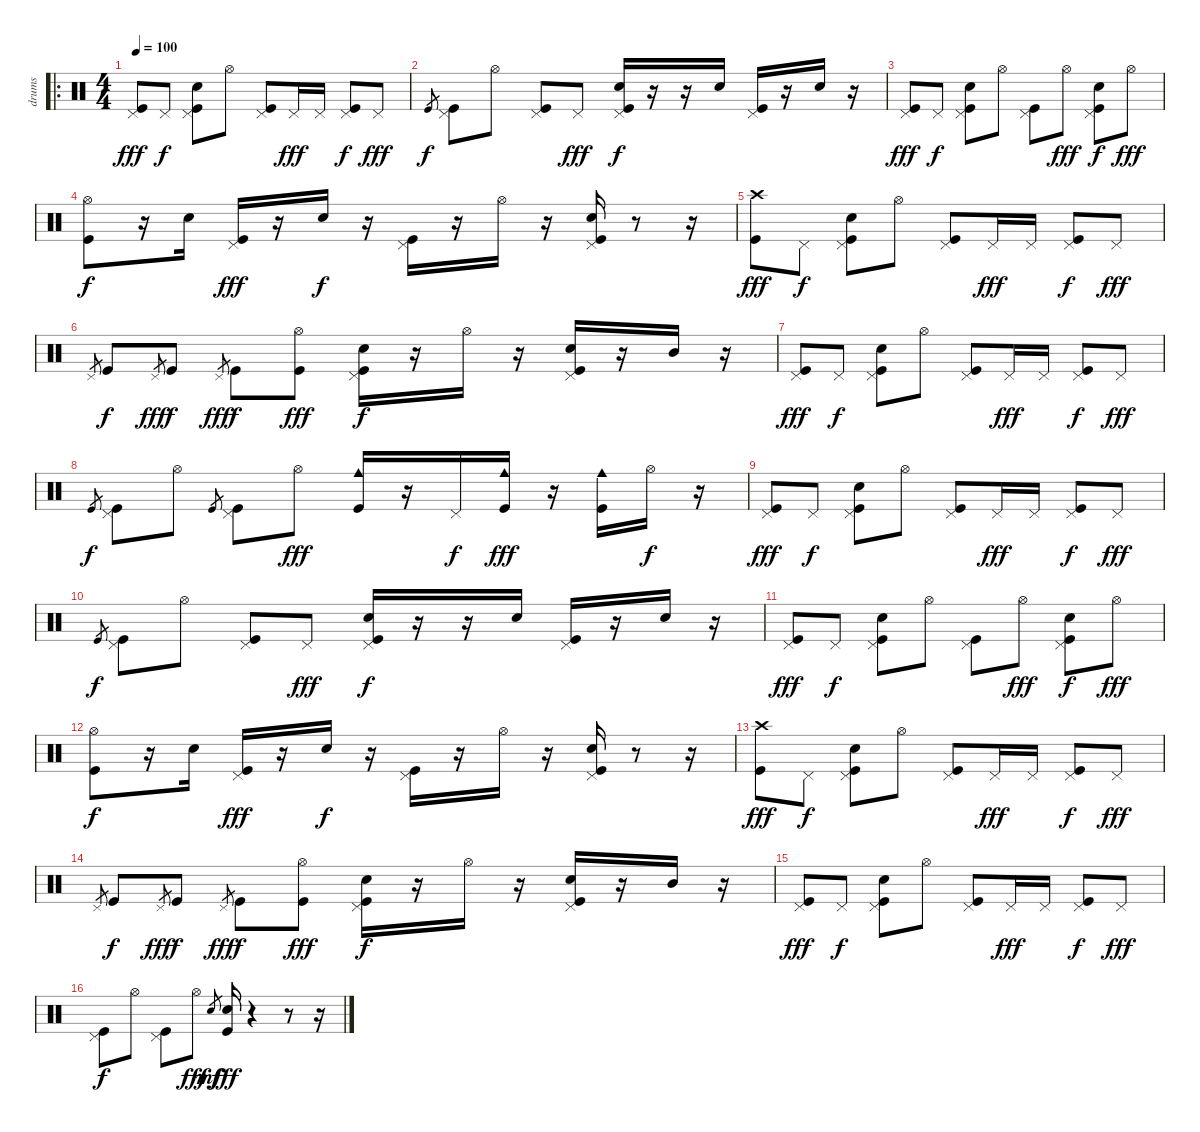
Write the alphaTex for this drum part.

\track ("drums" "drums") {instrument percussion}
\staff {score}
\articulation defaults
\ro
\ts (4 4)
\tempo 100
\clef neutral
\ks c
("Pedal Hi-Hat (hit)" "Kick (hit)").8{dy fff} "Pedal Hi-Hat (hit)".8{dy f} ("Pedal Hi-Hat (hit)" "Electric Snare (hit)" "Kick (hit)").8 "Hi-Hat (open)".8 ("Pedal Hi-Hat (hit)" "Kick (hit)").8 "Pedal Hi-Hat (hit)".16{dy fff} "Pedal Hi-Hat (hit)".16 ("Pedal Hi-Hat (hit)" "Kick (hit)").8{dy f} "Pedal Hi-Hat (hit)".8{dy fff} |
"Kick (hit)".8{gr dy f} ("Pedal Hi-Hat (hit)" "Kick (hit)").8 "Hi-Hat (open)".8 ("Pedal Hi-Hat (hit)" "Kick (hit)").8 "Pedal Hi-Hat (hit)".8{dy fff} ("Pedal Hi-Hat (hit)" "Electric Snare (hit)" "Kick (hit)").16{dy f} r.16 r.16 "Electric Snare (hit)".16 ("Pedal Hi-Hat (hit)" "Kick (hit)").16 r.16 "Electric Snare (hit)".16 r.16 |
("Pedal Hi-Hat (hit)" "Kick (hit)").8{dy fff} "Pedal Hi-Hat (hit)".8{dy f} ("Pedal Hi-Hat (hit)" "Electric Snare (hit)" "Kick (hit)").8 "Hi-Hat (open)".8 ("Pedal Hi-Hat (hit)" "Kick (hit)").8 "Hi-Hat (open)".8{dy fff} ("Pedal Hi-Hat (hit)" "Electric Snare (hit)" "Kick (hit)").8{dy f} "Hi-Hat (open)".8{dy fff} |
("Hi-Hat (open)" "Kick (hit)").8{dy f} r.16 "Electric Snare (hit)".16 ("Pedal Hi-Hat (hit)" "Kick (hit)").16{dy fff} r.16 "Electric Snare (hit)".16{dy f} r.16 ("Pedal Hi-Hat (hit)" "Kick (hit)").16 r.16 "Hi-Hat (open)".16 r.16 ("Pedal Hi-Hat (hit)" "Electric Snare (hit)" "Kick (hit)").16 r.8 r.16 |
("Crash high (hit)" "Kick (hit)").8{dy fff} "Pedal Hi-Hat (hit)".8{dy f} ("Pedal Hi-Hat (hit)" "Electric Snare (hit)" "Kick (hit)").8 "Hi-Hat (open)".8 ("Pedal Hi-Hat (hit)" "Kick (hit)").8 "Pedal Hi-Hat (hit)".16{dy fff} "Pedal Hi-Hat (hit)".16 ("Pedal Hi-Hat (hit)" "Kick (hit)").8{dy f} "Pedal Hi-Hat (hit)".8{dy fff} |
"Pedal Hi-Hat (hit)".8{gr} "Kick (hit)".8{dy f} "Pedal Hi-Hat (hit)".8{gr dy fff} "Kick (hit)".8{dy f} "Pedal Hi-Hat (hit)".8{gr dy fff} "Kick (hit)".8{dy f} ("Hi-Hat (open)" "Kick (hit)").8{dy fff} ("Pedal Hi-Hat (hit)" "Electric Snare (hit)" "Kick (hit)").16{dy f} r.16 "Hi-Hat (open)".16 r.16 ("Pedal Hi-Hat (hit)" "Electric Snare (hit)" "Kick (hit)").16 r.16 "Mid Tom (hit)".16 r.16 |
("Pedal Hi-Hat (hit)" "Kick (hit)").8{dy fff} "Pedal Hi-Hat (hit)".8{dy f} ("Pedal Hi-Hat (hit)" "Electric Snare (hit)" "Kick (hit)").8 "Hi-Hat (open)".8 ("Pedal Hi-Hat (hit)" "Kick (hit)").8 "Pedal Hi-Hat (hit)".16{dy fff} "Pedal Hi-Hat (hit)".16 ("Pedal Hi-Hat (hit)" "Kick (hit)").8{dy f} "Pedal Hi-Hat (hit)".8{dy fff} |
"Kick (hit)".8{gr dy f} ("Pedal Hi-Hat (hit)" "Kick (hit)").8 "Hi-Hat (open)".8 "Kick (hit)".8{gr} ("Pedal Hi-Hat (hit)" "Kick (hit)").8 "Hi-Hat (open)".8{dy fff} ("Cowbell medium (hit)" "Kick (hit)").16 r.16 "Pedal Hi-Hat (hit)".16{dy f} ("Cowbell medium (hit)" "Kick (hit)").16{dy fff} r.16 ("Cowbell medium (hit)" "Kick (hit)").16 "Hi-Hat (open)".16{dy f} r.16 |
("Pedal Hi-Hat (hit)" "Kick (hit)").8{dy fff} "Pedal Hi-Hat (hit)".8{dy f} ("Pedal Hi-Hat (hit)" "Electric Snare (hit)" "Kick (hit)").8 "Hi-Hat (open)".8 ("Pedal Hi-Hat (hit)" "Kick (hit)").8 "Pedal Hi-Hat (hit)".16{dy fff} "Pedal Hi-Hat (hit)".16 ("Pedal Hi-Hat (hit)" "Kick (hit)").8{dy f} "Pedal Hi-Hat (hit)".8{dy fff} |
"Kick (hit)".8{gr dy f} ("Pedal Hi-Hat (hit)" "Kick (hit)").8 "Hi-Hat (open)".8 ("Pedal Hi-Hat (hit)" "Kick (hit)").8 "Pedal Hi-Hat (hit)".8{dy fff} ("Pedal Hi-Hat (hit)" "Electric Snare (hit)" "Kick (hit)").16{dy f} r.16 r.16 "Electric Snare (hit)".16 ("Pedal Hi-Hat (hit)" "Kick (hit)").16 r.16 "Electric Snare (hit)".16 r.16 |
("Pedal Hi-Hat (hit)" "Kick (hit)").8{dy fff} "Pedal Hi-Hat (hit)".8{dy f} ("Pedal Hi-Hat (hit)" "Electric Snare (hit)" "Kick (hit)").8 "Hi-Hat (open)".8 ("Pedal Hi-Hat (hit)" "Kick (hit)").8 "Hi-Hat (open)".8{dy fff} ("Pedal Hi-Hat (hit)" "Electric Snare (hit)" "Kick (hit)").8{dy f} "Hi-Hat (open)".8{dy fff} |
("Hi-Hat (open)" "Kick (hit)").8{dy f} r.16 "Electric Snare (hit)".16 ("Pedal Hi-Hat (hit)" "Kick (hit)").16{dy fff} r.16 "Electric Snare (hit)".16{dy f} r.16 ("Pedal Hi-Hat (hit)" "Kick (hit)").16 r.16 "Hi-Hat (open)".16 r.16 ("Pedal Hi-Hat (hit)" "Electric Snare (hit)" "Kick (hit)").16 r.8 r.16 |
("Crash high (hit)" "Kick (hit)").8{dy fff} "Pedal Hi-Hat (hit)".8{dy f} ("Pedal Hi-Hat (hit)" "Electric Snare (hit)" "Kick (hit)").8 "Hi-Hat (open)".8 ("Pedal Hi-Hat (hit)" "Kick (hit)").8 "Pedal Hi-Hat (hit)".16{dy fff} "Pedal Hi-Hat (hit)".16 ("Pedal Hi-Hat (hit)" "Kick (hit)").8{dy f} "Pedal Hi-Hat (hit)".8{dy fff} |
"Pedal Hi-Hat (hit)".8{gr} "Kick (hit)".8{dy f} "Pedal Hi-Hat (hit)".8{gr dy fff} "Kick (hit)".8{dy f} "Pedal Hi-Hat (hit)".8{gr dy fff} "Kick (hit)".8{dy f} ("Hi-Hat (open)" "Kick (hit)").8{dy fff} ("Pedal Hi-Hat (hit)" "Electric Snare (hit)" "Kick (hit)").16{dy f} r.16 "Hi-Hat (open)".16 r.16 ("Pedal Hi-Hat (hit)" "Electric Snare (hit)" "Kick (hit)").16 r.16 "Mid Tom (hit)".16 r.16 |
("Pedal Hi-Hat (hit)" "Kick (hit)").8{dy fff} "Pedal Hi-Hat (hit)".8{dy f} ("Pedal Hi-Hat (hit)" "Electric Snare (hit)" "Kick (hit)").8 "Hi-Hat (open)".8 ("Pedal Hi-Hat (hit)" "Kick (hit)").8 "Pedal Hi-Hat (hit)".16{dy fff} "Pedal Hi-Hat (hit)".16 ("Pedal Hi-Hat (hit)" "Kick (hit)").8{dy f} "Pedal Hi-Hat (hit)".8{dy fff} |
("Pedal Hi-Hat (hit)" "Kick (hit)").8{dy f} "Hi-Hat (open)".8 ("Pedal Hi-Hat (hit)" "Kick (hit)").8 "Hi-Hat (open)".8{dy fff} "Electric Snare (hit)".8{gr dy mf} ("Electric Snare (hit)" "Kick (hit)").16{dy fff} r.4 r.8 r.16
